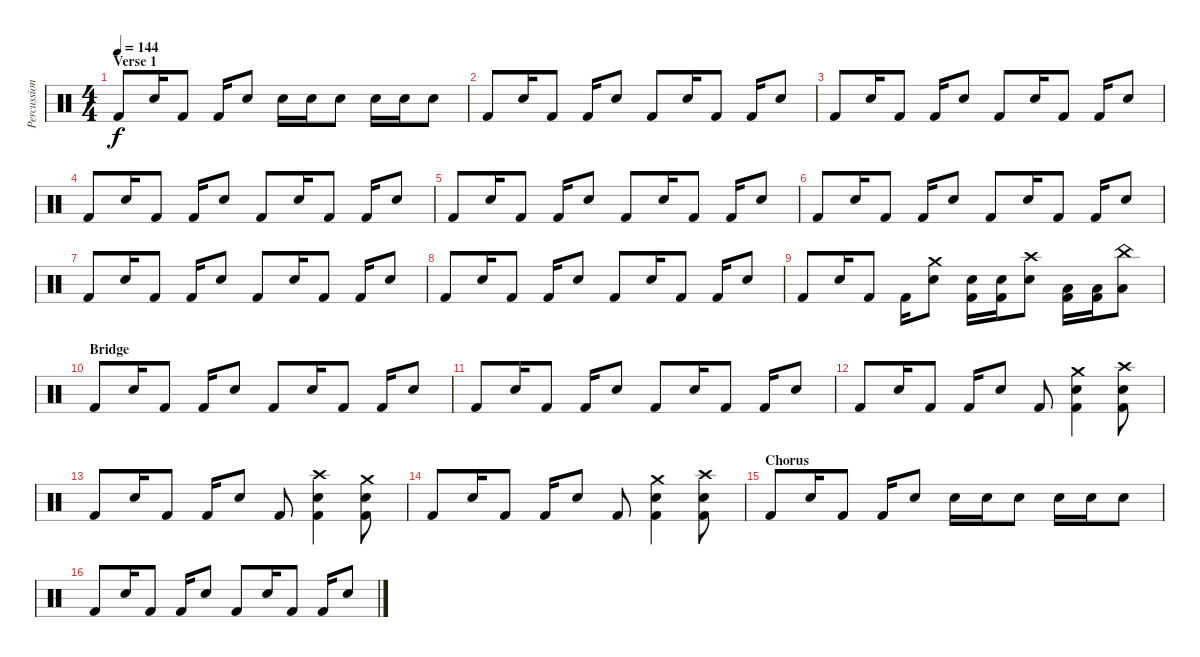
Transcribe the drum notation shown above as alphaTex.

\track ("Percussion" "Percussion") {instrument percussion}
\staff {score}
\articulation defaults
\ts (4 4)
\section ("" "Verse 1")
\tempo 144
\clef neutral
\ks c "Kick (hit) 2".8{dy f} "Snare (hit) 2".16 "Kick (hit) 2".8 "Kick (hit) 2".16 "Snare (hit) 2".8 "Snare (hit) 2".16 "Snare (hit) 2".16 "Snare (hit) 2".8 "Snare (hit) 2".16 "Snare (hit) 2".16 "Snare (hit) 2".8
|
"Kick (hit) 2".8 "Snare (hit) 2".16 "Kick (hit) 2".8 "Kick (hit) 2".16 "Snare (hit) 2".8 "Kick (hit) 2".8 "Snare (hit) 2".16 "Kick (hit) 2".8 "Kick (hit) 2".16 "Snare (hit) 2".8 |
"Kick (hit) 2".8 "Snare (hit) 2".16 "Kick (hit) 2".8 "Kick (hit) 2".16 "Snare (hit) 2".8 "Kick (hit) 2".8 "Snare (hit) 2".16 "Kick (hit) 2".8 "Kick (hit) 2".16 "Snare (hit) 2".8 |
"Kick (hit) 2".8 "Snare (hit) 2".16 "Kick (hit) 2".8 "Kick (hit) 2".16 "Snare (hit) 2".8 "Kick (hit) 2".8 "Snare (hit) 2".16 "Kick (hit) 2".8 "Kick (hit) 2".16 "Snare (hit) 2".8 |
"Kick (hit) 2".8 "Snare (hit) 2".16 "Kick (hit) 2".8 "Kick (hit) 2".16 "Snare (hit) 2".8 "Kick (hit) 2".8 "Snare (hit) 2".16 "Kick (hit) 2".8 "Kick (hit) 2".16 "Snare (hit) 2".8 |
"Kick (hit) 2".8 "Snare (hit) 2".16 "Kick (hit) 2".8 "Kick (hit) 2".16 "Snare (hit) 2".8 "Kick (hit) 2".8 "Snare (hit) 2".16 "Kick (hit) 2".8 "Kick (hit) 2".16 "Snare (hit) 2".8 |
"Kick (hit) 2".8 "Snare (hit) 2".16 "Kick (hit) 2".8 "Kick (hit) 2".16 "Snare (hit) 2".8 "Kick (hit) 2".8 "Snare (hit) 2".16 "Kick (hit) 2".8 "Kick (hit) 2".16 "Snare (hit) 2".8 |
"Kick (hit) 2".8 "Snare (hit) 2".16 "Kick (hit) 2".8 "Kick (hit) 2".16 "Snare (hit) 2".8 "Kick (hit) 2".8 "Snare (hit) 2".16 "Kick (hit) 2".8 "Kick (hit) 2".16 "Snare (hit) 2".8 |
"Kick (hit) 2".8 "Snare (hit) 2".16 "Kick (hit) 2".8 "Kick (hit) 2".16 ("Crash medium (hit)" "Snare (hit) 2").8 ("Snare (hit) 2" "Kick (hit) 2").16 ("Snare (hit) 2" "Kick (hit) 2").16 ("Crash high (hit)" "Snare (hit) 2").8 ("Low Tom (hit)" "Kick (hit) 2").16 ("Low Tom (hit)" "Kick (hit) 2").16 ("China (hit)" "Low Tom (hit)").8 |
\section ("" "Bridge")
"Kick (hit) 2".8 "Snare (hit) 2".16 "Kick (hit) 2".8 "Kick (hit) 2".16 "Snare (hit) 2".8 "Kick (hit) 2".8 "Snare (hit) 2".16 "Kick (hit) 2".8 "Kick (hit) 2".16 "Snare (hit) 2".8 |
"Kick (hit) 2".8 "Snare (hit) 2".16 "Kick (hit) 2".8 "Kick (hit) 2".16 "Snare (hit) 2".8 "Kick (hit) 2".8 "Snare (hit) 2".16 "Kick (hit) 2".8 "Kick (hit) 2".16 "Snare (hit) 2".8 |
"Kick (hit) 2".8 "Snare (hit) 2".16 "Kick (hit) 2".8 "Kick (hit) 2".16 "Snare (hit) 2".8 "Kick (hit) 2".8 ("Crash medium (hit)" "Snare (hit) 2" "Kick (hit) 2").4 ("Crash high (hit)" "Snare (hit) 2" "Kick (hit) 2").8 |
"Kick (hit) 2".8 "Snare (hit) 2".16 "Kick (hit) 2".8 "Kick (hit) 2".16 "Snare (hit) 2".8 "Kick (hit) 2".8 ("Crash high (hit)" "Snare (hit) 2" "Kick (hit) 2").4 ("Crash medium (hit)" "Snare (hit) 2" "Kick (hit) 2").8 |
"Kick (hit) 2".8 "Snare (hit) 2".16 "Kick (hit) 2".8 "Kick (hit) 2".16 "Snare (hit) 2".8 "Kick (hit) 2".8 ("Crash medium (hit)" "Snare (hit) 2" "Kick (hit) 2").4 ("Crash high (hit)" "Snare (hit) 2" "Kick (hit) 2").8 |
\section ("" "Chorus")
"Kick (hit) 2".8 "Snare (hit) 2".16 "Kick (hit) 2".8 "Kick (hit) 2".16 "Snare (hit) 2".8 "Snare (hit) 2".16 "Snare (hit) 2".16 "Snare (hit) 2".8 "Snare (hit) 2".16 "Snare (hit) 2".16 "Snare (hit) 2".8 |
"Kick (hit) 2".8 "Snare (hit) 2".16 "Kick (hit) 2".8 "Kick (hit) 2".16 "Snare (hit) 2".8 "Kick (hit) 2".8 "Snare (hit) 2".16 "Kick (hit) 2".8 "Kick (hit) 2".16 "Snare (hit) 2".8
